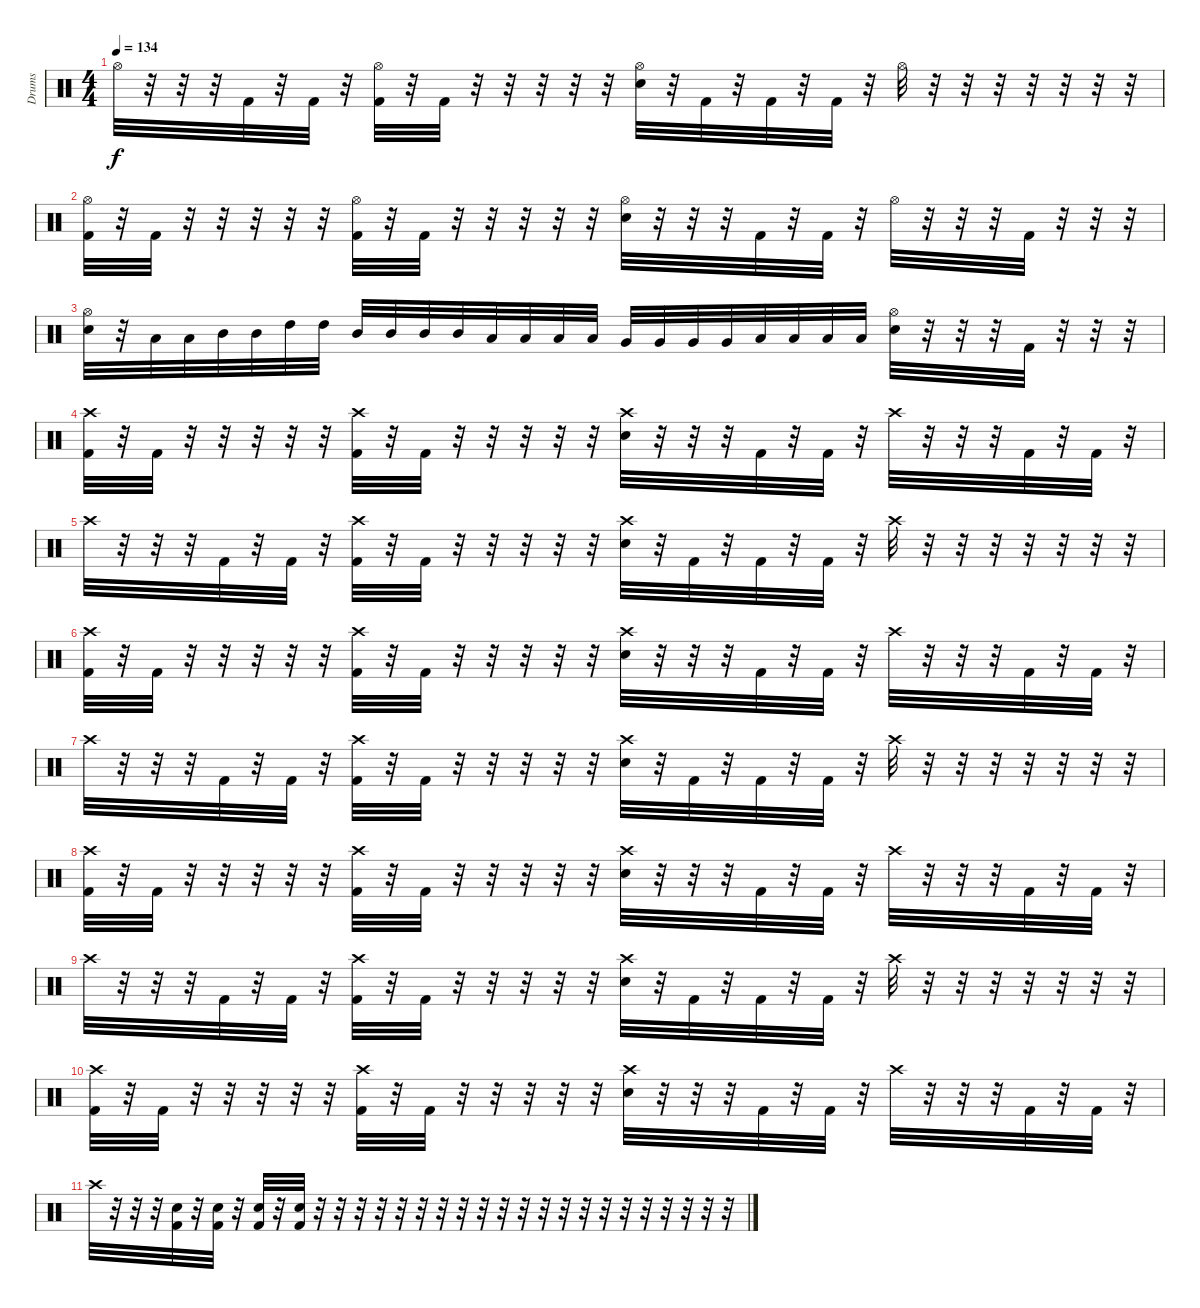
\track ("Drums" "Drums") {instrument percussion}
\staff {score}
\articulation defaults
\ts (4 4)
\tempo 134
\clef neutral
\ks c "Hi-Hat (open)".32{dy f}
r.32 r.32 r.32 "Kick (hit) 2".32 r.32 "Kick (hit) 2".32 r.32 ("Kick (hit) 2" "Hi-Hat (open)").32 r.32 "Kick (hit) 2".32 r.32 r.32 r.32 r.32 r.32 ("Electric Snare (hit)" "Hi-Hat (open)").32 r.32 "Kick (hit) 2".32 r.32 "Kick (hit) 2".32 r.32 "Kick (hit) 2".32 r.32 "Hi-Hat (open)".32 r.32 r.32 r.32 r.32 r.32 r.32 r.32 |
("Kick (hit) 2" "Hi-Hat (open)").32 r.32 "Kick (hit) 2".32 r.32 r.32 r.32 r.32 r.32 ("Kick (hit) 2" "Hi-Hat (open)").32 r.32 "Kick (hit) 2".32 r.32 r.32 r.32 r.32 r.32 ("Electric Snare (hit)" "Hi-Hat (open)").32 r.32 r.32 r.32 "Kick (hit) 2".32 r.32 "Kick (hit) 2".32 r.32 "Hi-Hat (open)".32 r.32 r.32 r.32 "Kick (hit) 2".32 r.32 r.32 r.32 |
("Electric Snare (hit)" "Hi-Hat (open)").32 r.32 "Low Tom (hit)".32 "Low Tom (hit)".32 "Mid Tom (hit)".32 "Mid Tom (hit)".32 "High Tom (hit)".32 "High Tom (hit)".32 "Mid Tom (hit)".32 "Mid Tom (hit)".32 "Mid Tom (hit)".32 "Mid Tom (hit)".32 "Low Tom (hit)".32 "Low Tom (hit)".32 "Low Tom (hit)".32 "Low Tom (hit)".32 "Very Low Tom (hit)".32 "Very Low Tom (hit)".32 "Very Low Tom (hit)".32 "Very Low Tom (hit)".32 "Low Floor Tom (hit)".32 "Low Floor Tom (hit)".32 "Low Floor Tom (hit)".32 "Low Floor Tom (hit)".32 ("Electric Snare (hit)" "Hi-Hat (open)").32 r.32 r.32 r.32 "Kick (hit) 2".32 r.32 r.32 r.32 |
("Kick (hit) 2" "Crash high (hit)").32 r.32 "Kick (hit) 2".32 r.32 r.32 r.32 r.32 r.32 ("Kick (hit) 2" "Crash high (hit)").32 r.32 "Kick (hit) 2".32 r.32 r.32 r.32 r.32 r.32 ("Electric Snare (hit)" "Crash high (hit)").32 r.32 r.32 r.32 "Kick (hit) 2".32 r.32 "Kick (hit) 2".32 r.32 "Crash high (hit)".32 r.32 r.32 r.32 "Kick (hit) 2".32 r.32 "Kick (hit) 2".32 r.32 |
"Crash high (hit)".32 r.32 r.32 r.32 "Kick (hit) 2".32 r.32 "Kick (hit) 2".32 r.32 ("Kick (hit) 2" "Crash high (hit)").32 r.32 "Kick (hit) 2".32 r.32 r.32 r.32 r.32 r.32 ("Electric Snare (hit)" "Crash high (hit)").32 r.32 "Kick (hit) 2".32 r.32 "Kick (hit) 2".32 r.32 "Kick (hit) 2".32 r.32 "Crash high (hit)".32 r.32 r.32 r.32 r.32 r.32 r.32 r.32 |
("Kick (hit) 2" "Crash high (hit)").32 r.32 "Kick (hit) 2".32 r.32 r.32 r.32 r.32 r.32 ("Kick (hit) 2" "Crash high (hit)").32 r.32 "Kick (hit) 2".32 r.32 r.32 r.32 r.32 r.32 ("Electric Snare (hit)" "Crash high (hit)").32 r.32 r.32 r.32 "Kick (hit) 2".32 r.32 "Kick (hit) 2".32 r.32 "Crash high (hit)".32 r.32 r.32 r.32 "Kick (hit) 2".32 r.32 "Kick (hit) 2".32 r.32 |
"Crash high (hit)".32 r.32 r.32 r.32 "Kick (hit) 2".32 r.32 "Kick (hit) 2".32 r.32 ("Kick (hit) 2" "Crash high (hit)").32 r.32 "Kick (hit) 2".32 r.32 r.32 r.32 r.32 r.32 ("Electric Snare (hit)" "Crash high (hit)").32 r.32 "Kick (hit) 2".32 r.32 "Kick (hit) 2".32 r.32 "Kick (hit) 2".32 r.32 "Crash high (hit)".32 r.32 r.32 r.32 r.32 r.32 r.32 r.32 |
("Kick (hit) 2" "Crash high (hit)").32 r.32 "Kick (hit) 2".32 r.32 r.32 r.32 r.32 r.32 ("Kick (hit) 2" "Crash high (hit)").32 r.32 "Kick (hit) 2".32 r.32 r.32 r.32 r.32 r.32 ("Electric Snare (hit)" "Crash high (hit)").32 r.32 r.32 r.32 "Kick (hit) 2".32 r.32 "Kick (hit) 2".32 r.32 "Crash high (hit)".32 r.32 r.32 r.32 "Kick (hit) 2".32 r.32 "Kick (hit) 2".32 r.32 |
"Crash high (hit)".32 r.32 r.32 r.32 "Kick (hit) 2".32 r.32 "Kick (hit) 2".32 r.32 ("Kick (hit) 2" "Crash high (hit)").32 r.32 "Kick (hit) 2".32 r.32 r.32 r.32 r.32 r.32 ("Electric Snare (hit)" "Crash high (hit)").32 r.32 "Kick (hit) 2".32 r.32 "Kick (hit) 2".32 r.32 "Kick (hit) 2".32 r.32 "Crash high (hit)".32 r.32 r.32 r.32 r.32 r.32 r.32 r.32 |
("Kick (hit) 2" "Crash high (hit)").32 r.32 "Kick (hit) 2".32 r.32 r.32 r.32 r.32 r.32 ("Kick (hit) 2" "Crash high (hit)").32 r.32 "Kick (hit) 2".32 r.32 r.32 r.32 r.32 r.32 ("Electric Snare (hit)" "Crash high (hit)").32 r.32 r.32 r.32 "Kick (hit) 2".32 r.32 "Kick (hit) 2".32 r.32 "Crash high (hit)".32 r.32 r.32 r.32 "Kick (hit) 2".32 r.32 "Kick (hit) 2".32 r.32 |
"Crash high (hit)".32 r.32 r.32 r.32 ("Kick (hit) 2" "Electric Snare (hit)").32 r.32 ("Kick (hit) 2" "Electric Snare (hit)").32 r.32 ("Kick (hit) 2" "Electric Snare (hit)").32 r.32 ("Kick (hit) 2" "Electric Snare (hit)").32 r.32 r.32 r.32 r.32 r.32 r.32 r.32 r.32 r.32 r.32 r.32 r.32 r.32 r.32 r.32 r.32 r.32 r.32 r.32 r.32 r.32
